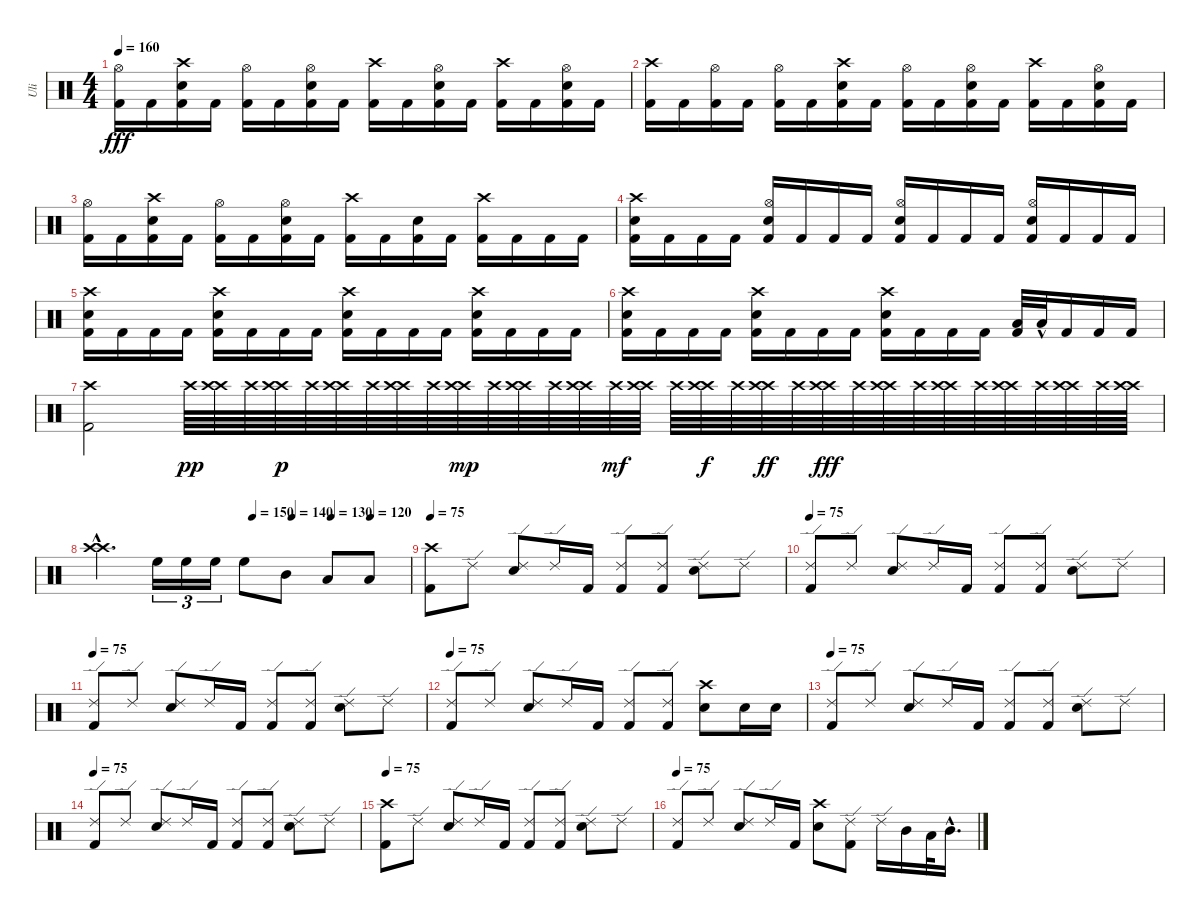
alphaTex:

\track ("Uli" "Uli") {instrument percussion}
\staff {score}
\articulation defaults
\ts (4 4)
\tempo 160
\clef neutral
\ks c
("Kick (hit) 2" "Hi-Hat (open)").16{dy fff} "Kick (hit) 2".16 ("Kick (hit) 2" "Electric Snare (hit)" "Crash high (hit)").16 "Kick (hit) 2".16 ("Kick (hit) 2" "Hi-Hat (open)").16 "Kick (hit) 2".16 ("Kick (hit) 2" "Electric Snare (hit)" "Hi-Hat (open)").16 "Kick (hit) 2".16 ("Kick (hit) 2" "Crash high (hit)").16 "Kick (hit) 2".16 ("Kick (hit) 2" "Electric Snare (hit)" "Hi-Hat (open)").16 "Kick (hit) 2".16 ("Kick (hit) 2" "Crash high (hit)").16 "Kick (hit) 2".16 ("Kick (hit) 2" "Electric Snare (hit)" "Hi-Hat (open)").16 "Kick (hit) 2".16 |
("Kick (hit) 2" "Crash high (hit)").16 "Kick (hit) 2".16 ("Kick (hit) 2" "Hi-Hat (open)").16 "Kick (hit) 2".16 ("Kick (hit) 2" "Hi-Hat (open)").16 "Kick (hit) 2".16 ("Kick (hit) 2" "Electric Snare (hit)" "Crash high (hit)").16 "Kick (hit) 2".16 ("Kick (hit) 2" "Hi-Hat (open)").16 "Kick (hit) 2".16 ("Kick (hit) 2" "Electric Snare (hit)" "Hi-Hat (open)").16 "Kick (hit) 2".16 ("Kick (hit) 2" "Crash high (hit)").16 "Kick (hit) 2".16 ("Kick (hit) 2" "Electric Snare (hit)" "Hi-Hat (open)").16 "Kick (hit) 2".16 |
("Kick (hit) 2" "Hi-Hat (open)").16 "Kick (hit) 2".16 ("Kick (hit) 2" "Electric Snare (hit)" "Crash high (hit)").16 "Kick (hit) 2".16 ("Kick (hit) 2" "Hi-Hat (open)").16 "Kick (hit) 2".16 ("Kick (hit) 2" "Electric Snare (hit)" "Hi-Hat (open)").16 "Kick (hit) 2".16 ("Kick (hit) 2" "Crash high (hit)").16 "Kick (hit) 2".16 ("Kick (hit) 2" "Electric Snare (hit)").16 "Kick (hit) 2".16 ("Kick (hit) 2" "Crash high (hit)").16 "Kick (hit) 2".16 "Kick (hit) 2".16 "Kick (hit) 2".16 |
("Kick (hit) 2" "Electric Snare (hit)" "Crash high (hit)").16 "Kick (hit) 2".16 "Kick (hit) 2".16 "Kick (hit) 2".16 ("Kick (hit) 2" "Electric Snare (hit)" "Hi-Hat (open)").16 "Kick (hit) 2".16 "Kick (hit) 2".16 "Kick (hit) 2".16 ("Kick (hit) 2" "Electric Snare (hit)" "Hi-Hat (open)").16 "Kick (hit) 2".16 "Kick (hit) 2".16 "Kick (hit) 2".16 ("Kick (hit) 2" "Electric Snare (hit)" "Hi-Hat (open)").16 "Kick (hit) 2".16 "Kick (hit) 2".16 "Kick (hit) 2".16 |
("Kick (hit) 2" "Electric Snare (hit)" "Crash high (hit)").16 "Kick (hit) 2".16 "Kick (hit) 2".16 "Kick (hit) 2".16 ("Kick (hit) 2" "Electric Snare (hit)" "Crash high (hit)").16 "Kick (hit) 2".16 "Kick (hit) 2".16 "Kick (hit) 2".16 ("Kick (hit) 2" "Electric Snare (hit)" "Crash high (hit)").16 "Kick (hit) 2".16 "Kick (hit) 2".16 "Kick (hit) 2".16 ("Kick (hit) 2" "Electric Snare (hit)" "Crash high (hit)").16 "Kick (hit) 2".16 "Kick (hit) 2".16 "Kick (hit) 2".16 |
("Kick (hit) 2" "Electric Snare (hit)" "Crash high (hit)").16 "Kick (hit) 2".16 "Kick (hit) 2".16 "Kick (hit) 2".16 ("Kick (hit) 2" "Electric Snare (hit)" "Crash high (hit)").16 "Kick (hit) 2".16 "Kick (hit) 2".16 "Kick (hit) 2".16 ("Kick (hit) 2" "Electric Snare (hit)" "Crash high (hit)").16 "Kick (hit) 2".16 "Kick (hit) 2".16 "Kick (hit) 2".16 ("Kick (hit) 2" "Low Floor Tom (hit)").32 "Low Floor Tom (hit)"{hac}.32 "Kick (hit) 2".16 "Kick (hit) 2".16 "Kick (hit) 2".16 |
("Kick (hit) 2" "Crash high (hit)").2 "Crash high (hit)".64{dy pp} ("Crash high (hit)" "Crash high (hit)").64 "Crash high (hit)".64 ("Crash high (hit)" "Crash high (hit)").64{dy p} "Crash high (hit)".64 ("Crash high (hit)" "Crash high (hit)").64 "Crash high (hit)".64 ("Crash high (hit)" "Crash high (hit)").64 "Crash high (hit)".64 ("Crash high (hit)" "Crash high (hit)").64{dy mp} "Crash high (hit)".64 ("Crash high (hit)" "Crash high (hit)").64 "Crash high (hit)".64 ("Crash high (hit)" "Crash high (hit)").64 "Crash high (hit)".64{dy mf} ("Crash high (hit)" "Crash high (hit)").64 "Crash high (hit)".64 ("Crash high (hit)" "Crash high (hit)").64{dy f} "Crash high (hit)".64 ("Crash high (hit)" "Crash high (hit)").64{dy ff} "Crash high (hit)".64 ("Crash high (hit)" "Crash high (hit)").64{dy fff} "Crash high (hit)".64 ("Crash high (hit)" "Crash high (hit)").64 "Crash high (hit)".64 ("Crash high (hit)" "Crash high (hit)").64 "Crash high (hit)".64 ("Crash high (hit)" "Crash high (hit)").64 "Crash high (hit)".64 ("Crash high (hit)" "Crash high (hit)").64 "Crash high (hit)".64 ("Crash high (hit)" "Crash high (hit)").64 |
\tempo (150 0.5)
\tempo (140 0.625)
\tempo (130 0.75)
\tempo (120 0.875)
("Crash high (hit)" "Crash high (hit)"{hac}).4{d} "High Floor Tom (hit)".16{tu (3 2)} "High Floor Tom (hit)".16{tu (3 2)} "High Floor Tom (hit)".16{tu (3 2)} "High Floor Tom (hit)".8 "Mid Tom (hit)".8 "Low Tom (hit)".8 "Low Floor Tom (hit)".8 |
\tempo 75
("Kick (hit) 2" "Crash high (hit)").8 "Ride (edge) 2".8 ("Electric Snare (hit)" "Ride (edge) 2").8 "Ride (edge) 2".16 "Kick (hit) 2".16 ("Kick (hit) 2" "Ride (edge) 2").8 ("Kick (hit) 2" "Ride (edge) 2").8 ("Electric Snare (hit)" "Ride (edge) 2").8 "Ride (edge) 2".8 |
\tempo 75
("Kick (hit) 2" "Ride (edge) 2").8 "Ride (edge) 2".8 ("Electric Snare (hit)" "Ride (edge) 2").8 "Ride (edge) 2".16 "Kick (hit) 2".16 ("Kick (hit) 2" "Ride (edge) 2").8 ("Kick (hit) 2" "Ride (edge) 2").8 ("Electric Snare (hit)" "Ride (edge) 2").8 "Ride (edge) 2".8 |
\tempo 75
("Kick (hit) 2" "Ride (edge) 2").8 "Ride (edge) 2".8 ("Electric Snare (hit)" "Ride (edge) 2").8 "Ride (edge) 2".16 "Kick (hit) 2".16 ("Kick (hit) 2" "Ride (edge) 2").8 ("Kick (hit) 2" "Ride (edge) 2").8 ("Electric Snare (hit)" "Ride (edge) 2").8 "Ride (edge) 2".8 |
\tempo 75
("Kick (hit) 2" "Ride (edge) 2").8 "Ride (edge) 2".8 ("Electric Snare (hit)" "Ride (edge) 2").8 "Ride (edge) 2".16 "Kick (hit) 2".16 ("Kick (hit) 2" "Ride (edge) 2").8 ("Kick (hit) 2" "Ride (edge) 2").8 ("Crash high (hit)" "Electric Snare (hit)").8 "Electric Snare (hit)".16 "Electric Snare (hit)".16 |
\tempo 75
("Kick (hit) 2" "Ride (edge) 2").8 "Ride (edge) 2".8 ("Electric Snare (hit)" "Ride (edge) 2").8 "Ride (edge) 2".16 "Kick (hit) 2".16 ("Kick (hit) 2" "Ride (edge) 2").8 ("Kick (hit) 2" "Ride (edge) 2").8 ("Electric Snare (hit)" "Ride (edge) 2").8 "Ride (edge) 2".8 |
\tempo 75
("Kick (hit) 2" "Ride (edge) 2").8 "Ride (edge) 2".8 ("Electric Snare (hit)" "Ride (edge) 2").8 "Ride (edge) 2".16 "Kick (hit) 2".16 ("Kick (hit) 2" "Ride (edge) 2").8 ("Kick (hit) 2" "Ride (edge) 2").8 ("Electric Snare (hit)" "Ride (edge) 2").8 "Ride (edge) 2".8 |
\tempo 75
("Kick (hit) 2" "Crash high (hit)").8 "Ride (edge) 2".8 ("Electric Snare (hit)" "Ride (edge) 2").8 "Ride (edge) 2".16 "Kick (hit) 2".16 ("Kick (hit) 2" "Ride (edge) 2").8 ("Kick (hit) 2" "Ride (edge) 2").8 ("Electric Snare (hit)" "Ride (edge) 2").8 "Ride (edge) 2".8 |
\tempo 75
("Kick (hit) 2" "Ride (edge) 2").8 "Ride (edge) 2".8 ("Electric Snare (hit)" "Ride (edge) 2").8 "Ride (edge) 2".16 "Kick (hit) 2".16 ("Electric Snare (hit)" "Crash high (hit)").8 ("Kick (hit) 2" "Ride (edge) 2").8 "Ride (edge) 2".16 "Mid Tom (hit)".16 "Low Tom (hit)".32 "Mid Tom (hit)"{hac}.16{d}
